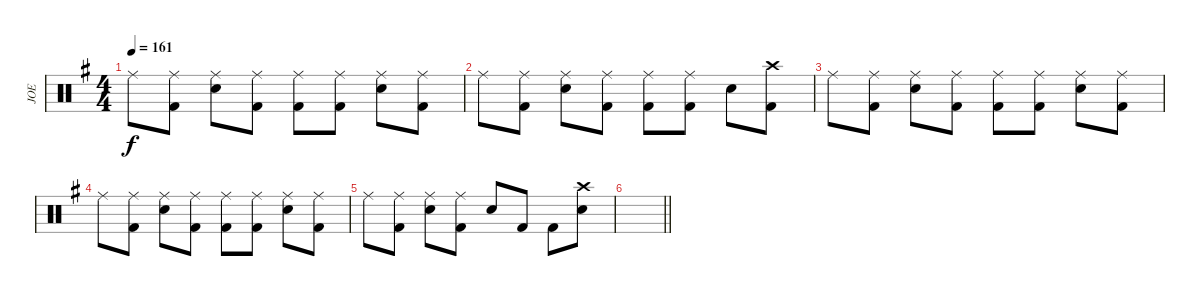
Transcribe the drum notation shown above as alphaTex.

\track ("JOE" "JOE") {instrument percussion}
\staff {score}
\articulation defaults
\ts (4 4)
\tempo 161
\clef neutral
\ks g "Ride (middle)".8{dy f}
("Ride (middle)" "Kick (hit) 2").8 ("Ride (middle)" "Snare (hit) 2").8 ("Kick (hit) 2" "Ride (middle)").8 ("Ride (middle)" "Kick (hit) 2").8 ("Ride (middle)" "Kick (hit) 2").8 ("Ride (middle)" "Snare (hit) 2").8 ("Ride (middle)" "Kick (hit) 2").8 |
"Ride (middle)".8 ("Ride (middle)" "Kick (hit) 2").8 ("Ride (middle)" "Snare (hit) 2").8 ("Kick (hit) 2" "Ride (middle)").8 ("Ride (middle)" "Kick (hit) 2").8 ("Ride (middle)" "Kick (hit) 2").8 "Snare (hit) 2".8 ("Crash high (hit)" "Kick (hit) 2").8 |
"Ride (middle)".8 ("Ride (middle)" "Kick (hit) 2").8 ("Ride (middle)" "Snare (hit) 2").8 ("Kick (hit) 2" "Ride (middle)").8 ("Ride (middle)" "Kick (hit) 2").8 ("Ride (middle)" "Kick (hit) 2").8 ("Ride (middle)" "Snare (hit) 2").8 ("Ride (middle)" "Kick (hit) 2").8 |
"Ride (middle)".8 ("Ride (middle)" "Kick (hit) 2").8 ("Ride (middle)" "Snare (hit) 2").8 ("Kick (hit) 2" "Ride (middle)").8 ("Ride (middle)" "Kick (hit) 2").8 ("Ride (middle)" "Kick (hit) 2").8 ("Ride (middle)" "Snare (hit) 2").8 ("Ride (middle)" "Kick (hit) 2").8 |
"Ride (middle)".8 ("Ride (middle)" "Kick (hit) 2").8 ("Ride (middle)" "Snare (hit) 2").8 ("Kick (hit) 2" "Ride (middle)").8 "Snare (hit) 2".8 "Kick (hit) 2".8 "Kick (hit) 2".8 ("Crash high (hit)" "Snare (hit) 2").8 |
\barLineRight lightlight
